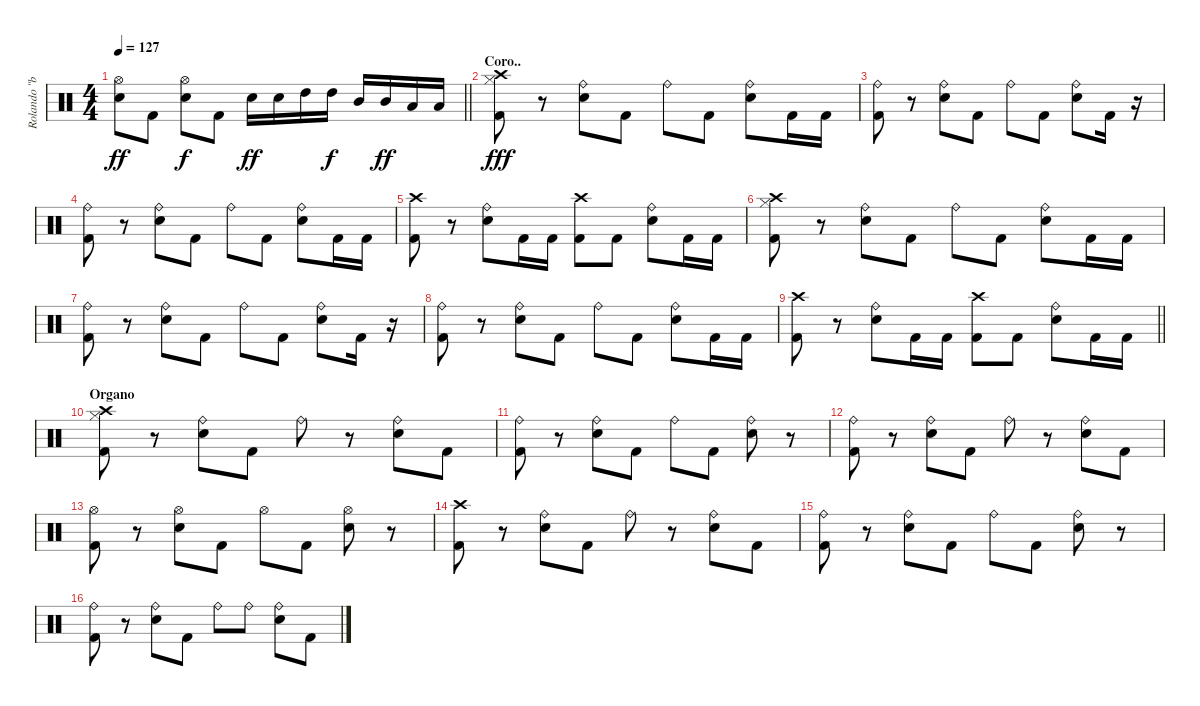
\track ("Rolando \"bataka\"" "Rolando \"b") {instrument percussion}
\staff {score}
\articulation defaults
\ts (4 4)
\tempo 127
\clef neutral
\barLineRight lightlight
\ks c
("Electric Snare (hit)" "Hi-Hat (open)").8{dy ff} "Kick (hit) 2".8 ("Electric Snare (hit)" "Hi-Hat (open)").8{dy f} "Kick (hit) 2".8 "Electric Snare (hit)".16{dy ff} "Electric Snare (hit)".16 "High Tom (hit)".16 "High Tom (hit)".16{dy f} "Mid Tom (hit)".16 "Mid Tom (hit)".16{dy ff} "Low Tom (hit)".16 "Low Tom (hit)".16 |
\section ("" "Coro..")
("Kick (hit) 2" "Hi-Hat (closed)" "Crash high (hit)").8{dy fff} r.8 ("Electric Snare (hit)" "Ride (bell)").8 "Kick (hit) 2".8 "Ride (bell)".8 "Kick (hit) 2".8 ("Electric Snare (hit)" "Ride (bell)").8 "Kick (hit) 2".16 "Kick (hit) 2".16 |
("Kick (hit) 2" "Ride (bell)").8 r.8 ("Electric Snare (hit)" "Ride (bell)").8 "Kick (hit) 2".8 "Ride (bell)".8 "Kick (hit) 2".8 ("Electric Snare (hit)" "Ride (bell)").8 "Kick (hit) 2".16 r.16 |
("Kick (hit) 2" "Ride (bell)").8 r.8 ("Electric Snare (hit)" "Ride (bell)").8 "Kick (hit) 2".8 "Ride (bell)".8 "Kick (hit) 2".8 ("Electric Snare (hit)" "Ride (bell)").8 "Kick (hit) 2".16 "Kick (hit) 2".16 |
("Kick (hit) 2" "Crash high (hit)").8 r.8 ("Electric Snare (hit)" "Ride (bell)").8 "Kick (hit) 2".16 "Kick (hit) 2".16 ("Kick (hit) 2" "Crash high (hit)").8 "Kick (hit) 2".8 ("Electric Snare (hit)" "Ride (bell)").8 "Kick (hit) 2".16 "Kick (hit) 2".16 |
("Kick (hit) 2" "Hi-Hat (closed)" "Crash high (hit)").8 r.8 ("Electric Snare (hit)" "Ride (bell)").8 "Kick (hit) 2".8 "Ride (bell)".8 "Kick (hit) 2".8 ("Electric Snare (hit)" "Ride (bell)").8 "Kick (hit) 2".16 "Kick (hit) 2".16 |
("Kick (hit) 2" "Ride (bell)").8 r.8 ("Electric Snare (hit)" "Ride (bell)").8 "Kick (hit) 2".8 "Ride (bell)".8 "Kick (hit) 2".8 ("Electric Snare (hit)" "Ride (bell)").8 "Kick (hit) 2".16 r.16 |
("Kick (hit) 2" "Ride (bell)").8 r.8 ("Electric Snare (hit)" "Ride (bell)").8 "Kick (hit) 2".8 "Ride (bell)".8 "Kick (hit) 2".8 ("Electric Snare (hit)" "Ride (bell)").8 "Kick (hit) 2".16 "Kick (hit) 2".16 |
\barLineRight lightlight
("Kick (hit) 2" "Crash high (hit)").8 r.8 ("Electric Snare (hit)" "Ride (bell)").8 "Kick (hit) 2".16 "Kick (hit) 2".16 ("Kick (hit) 2" "Crash high (hit)").8 "Kick (hit) 2".8 ("Electric Snare (hit)" "Ride (bell)").8 "Kick (hit) 2".16 "Kick (hit) 2".16 |
\section ("" "Organo")
("Kick (hit) 2" "Hi-Hat (closed)" "Crash high (hit)").8 r.8 ("Electric Snare (hit)" "Ride (bell)").8 "Kick (hit) 2".8 "Ride (bell)".8 r.8 ("Electric Snare (hit)" "Ride (bell)").8 "Kick (hit) 2".8 |
("Kick (hit) 2" "Ride (bell)").8 r.8 ("Electric Snare (hit)" "Ride (bell)").8 "Kick (hit) 2".8 "Ride (bell)".8 "Kick (hit) 2".8 ("Electric Snare (hit)" "Ride (bell)").8 r.8 |
("Kick (hit) 2" "Ride (bell)").8 r.8 ("Electric Snare (hit)" "Ride (bell)").8 "Kick (hit) 2".8 "Ride (bell)".8 r.8 ("Electric Snare (hit)" "Ride (bell)").8 "Kick (hit) 2".8 |
("Kick (hit) 2" "Hi-Hat (open)").8 r.8 ("Electric Snare (hit)" "Hi-Hat (open)").8 "Kick (hit) 2".8 "Hi-Hat (open)".8 "Kick (hit) 2".8 ("Electric Snare (hit)" "Hi-Hat (open)").8 r.8 |
("Kick (hit) 2" "Crash high (hit)").8 r.8 ("Electric Snare (hit)" "Ride (bell)").8 "Kick (hit) 2".8 "Ride (bell)".8 r.8 ("Electric Snare (hit)" "Ride (bell)").8 "Kick (hit) 2".8 |
("Kick (hit) 2" "Ride (bell)").8 r.8 ("Electric Snare (hit)" "Ride (bell)").8 "Kick (hit) 2".8 "Ride (bell)".8 "Kick (hit) 2".8 ("Electric Snare (hit)" "Ride (bell)").8 r.8 |
("Kick (hit) 2" "Ride (bell)").8 r.8 ("Electric Snare (hit)" "Ride (bell)").8 "Kick (hit) 2".8 "Ride (bell)".8 "Ride (bell)".8 ("Electric Snare (hit)" "Ride (bell)").8 "Kick (hit) 2".8
